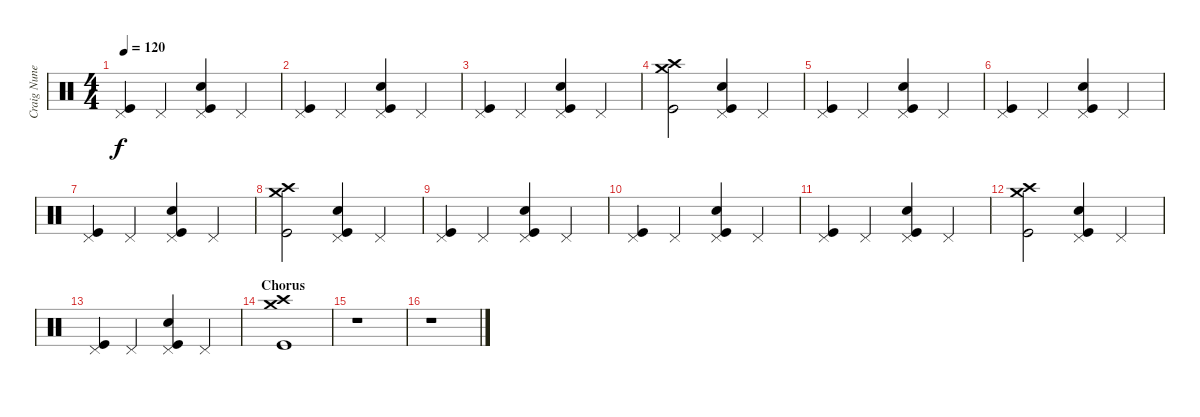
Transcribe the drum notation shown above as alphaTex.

\track ("Craig Nunenmacher" "Craig Nune") {instrument percussion}
\staff {score}
\articulation defaults
\ts (4 4)
\tempo 120
\clef neutral
\ks c
("Pedal Hi-Hat (hit)" "Kick (hit)").4{dy f} "Pedal Hi-Hat (hit)".4 ("Pedal Hi-Hat (hit)" "Snare (hit) 2" "Kick (hit)").4 "Pedal Hi-Hat (hit)".4 |
("Pedal Hi-Hat (hit)" "Kick (hit)").4 "Pedal Hi-Hat (hit)".4 ("Pedal Hi-Hat (hit)" "Snare (hit) 2" "Kick (hit)").4 "Pedal Hi-Hat (hit)".4 |
("Pedal Hi-Hat (hit)" "Kick (hit)").4 "Pedal Hi-Hat (hit)".4 ("Pedal Hi-Hat (hit)" "Snare (hit) 2" "Kick (hit)").4 "Pedal Hi-Hat (hit)".4 |
("Crash high (hit)" "Crash medium (hit)" "Kick (hit)").2 ("Pedal Hi-Hat (hit)" "Snare (hit) 2" "Kick (hit)").4 "Pedal Hi-Hat (hit)".4 |
("Pedal Hi-Hat (hit)" "Kick (hit)").4 "Pedal Hi-Hat (hit)".4 ("Pedal Hi-Hat (hit)" "Snare (hit) 2" "Kick (hit)").4 "Pedal Hi-Hat (hit)".4 |
("Pedal Hi-Hat (hit)" "Kick (hit)").4 "Pedal Hi-Hat (hit)".4 ("Pedal Hi-Hat (hit)" "Snare (hit) 2" "Kick (hit)").4 "Pedal Hi-Hat (hit)".4 |
("Pedal Hi-Hat (hit)" "Kick (hit)").4 "Pedal Hi-Hat (hit)".4 ("Pedal Hi-Hat (hit)" "Snare (hit) 2" "Kick (hit)").4 "Pedal Hi-Hat (hit)".4 |
("Crash high (hit)" "Crash medium (hit)" "Kick (hit)").2 ("Pedal Hi-Hat (hit)" "Snare (hit) 2" "Kick (hit)").4 "Pedal Hi-Hat (hit)".4 |
("Pedal Hi-Hat (hit)" "Kick (hit)").4 "Pedal Hi-Hat (hit)".4 ("Pedal Hi-Hat (hit)" "Snare (hit) 2" "Kick (hit)").4 "Pedal Hi-Hat (hit)".4 |
("Pedal Hi-Hat (hit)" "Kick (hit)").4 "Pedal Hi-Hat (hit)".4 ("Pedal Hi-Hat (hit)" "Snare (hit) 2" "Kick (hit)").4 "Pedal Hi-Hat (hit)".4 |
("Pedal Hi-Hat (hit)" "Kick (hit)").4 "Pedal Hi-Hat (hit)".4 ("Pedal Hi-Hat (hit)" "Snare (hit) 2" "Kick (hit)").4 "Pedal Hi-Hat (hit)".4 |
("Crash high (hit)" "Crash medium (hit)" "Kick (hit)").2 ("Pedal Hi-Hat (hit)" "Snare (hit) 2" "Kick (hit)").4 "Pedal Hi-Hat (hit)".4 |
("Pedal Hi-Hat (hit)" "Kick (hit)").4 "Pedal Hi-Hat (hit)".4 ("Pedal Hi-Hat (hit)" "Snare (hit) 2" "Kick (hit)").4 "Pedal Hi-Hat (hit)".4 |
\section ("" "Chorus")
("Crash medium (hit)" "Crash high (hit)" "Kick (hit)").1 |
r.1 |
r.1
